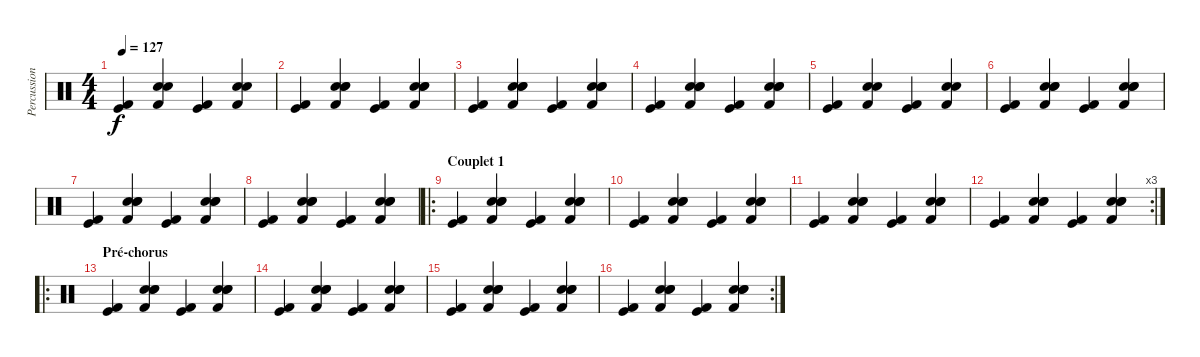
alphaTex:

\track ("Percussions" "Percussion") {instrument percussion}
\staff {score}
\articulation defaults
\ts (4 4)
\tempo 127
\clef neutral
\ks c
("Kick (hit) 2" "Kick (hit)").4{dy f} ("Kick (hit) 2" "Electric Snare (hit)" "Snare (hit) 2").4 ("Kick (hit) 2" "Kick (hit)").4 ("Kick (hit) 2" "Electric Snare (hit)" "Snare (hit) 2").4 |
("Kick (hit) 2" "Kick (hit)").4 ("Electric Snare (hit)" "Kick (hit) 2" "Electric Snare (hit)" "Snare (hit) 2").4 ("Kick (hit) 2" "Kick (hit)").4 ("Electric Snare (hit)" "Kick (hit) 2" "Electric Snare (hit)" "Snare (hit) 2").4 |
("Kick (hit) 2" "Kick (hit)").4 ("Electric Snare (hit)" "Kick (hit) 2" "Electric Snare (hit)" "Snare (hit) 2").4 ("Kick (hit) 2" "Kick (hit)").4 ("Electric Snare (hit)" "Kick (hit) 2" "Electric Snare (hit)" "Snare (hit) 2").4 |
("Kick (hit) 2" "Kick (hit)").4 ("Electric Snare (hit)" "Kick (hit) 2" "Electric Snare (hit)" "Snare (hit) 2").4 ("Kick (hit) 2" "Kick (hit)").4 ("Electric Snare (hit)" "Kick (hit) 2" "Electric Snare (hit)" "Snare (hit) 2").4 |
("Kick (hit) 2" "Kick (hit)").4 ("Kick (hit) 2" "Electric Snare (hit)" "Snare (hit) 2").4 ("Kick (hit) 2" "Kick (hit)").4 ("Kick (hit) 2" "Electric Snare (hit)" "Snare (hit) 2").4 |
("Kick (hit) 2" "Kick (hit)").4 ("Electric Snare (hit)" "Kick (hit) 2" "Electric Snare (hit)" "Snare (hit) 2").4 ("Kick (hit) 2" "Kick (hit)").4 ("Electric Snare (hit)" "Kick (hit) 2" "Electric Snare (hit)" "Snare (hit) 2").4 |
("Kick (hit) 2" "Kick (hit)").4 ("Electric Snare (hit)" "Kick (hit) 2" "Electric Snare (hit)" "Snare (hit) 2").4 ("Kick (hit) 2" "Kick (hit)").4 ("Electric Snare (hit)" "Kick (hit) 2" "Electric Snare (hit)" "Snare (hit) 2").4 |
("Kick (hit) 2" "Kick (hit)").4 ("Electric Snare (hit)" "Kick (hit) 2" "Electric Snare (hit)" "Snare (hit) 2").4 ("Kick (hit) 2" "Kick (hit)").4 ("Electric Snare (hit)" "Kick (hit) 2" "Electric Snare (hit)" "Snare (hit) 2").4 |
\ro
\section ("" "Couplet 1")
("Kick (hit) 2" "Kick (hit)").4 ("Electric Snare (hit)" "Kick (hit) 2" "Electric Snare (hit)" "Snare (hit) 2").4 ("Kick (hit) 2" "Kick (hit)").4 ("Electric Snare (hit)" "Kick (hit) 2" "Electric Snare (hit)" "Snare (hit) 2").4 |
("Kick (hit) 2" "Kick (hit)").4 ("Electric Snare (hit)" "Kick (hit) 2" "Electric Snare (hit)" "Snare (hit) 2").4 ("Kick (hit) 2" "Kick (hit)").4 ("Electric Snare (hit)" "Kick (hit) 2" "Electric Snare (hit)" "Snare (hit) 2").4 |
("Kick (hit) 2" "Kick (hit)").4 ("Electric Snare (hit)" "Kick (hit) 2" "Electric Snare (hit)" "Snare (hit) 2").4 ("Kick (hit) 2" "Kick (hit)").4 ("Electric Snare (hit)" "Kick (hit) 2" "Electric Snare (hit)" "Snare (hit) 2").4 |
\rc 3
("Kick (hit) 2" "Kick (hit)").4 ("Electric Snare (hit)" "Kick (hit) 2" "Electric Snare (hit)" "Snare (hit) 2").4 ("Kick (hit) 2" "Kick (hit)").4 ("Electric Snare (hit)" "Kick (hit) 2" "Electric Snare (hit)" "Snare (hit) 2").4 |
\ro
\section ("" "Pré-chorus")
("Kick (hit) 2" "Kick (hit)").4 ("Electric Snare (hit)" "Kick (hit) 2" "Electric Snare (hit)" "Snare (hit) 2").4 ("Kick (hit) 2" "Kick (hit)").4 ("Electric Snare (hit)" "Kick (hit) 2" "Electric Snare (hit)" "Snare (hit) 2").4 |
("Kick (hit) 2" "Kick (hit)").4 ("Electric Snare (hit)" "Kick (hit) 2" "Electric Snare (hit)" "Snare (hit) 2").4 ("Kick (hit) 2" "Kick (hit)").4 ("Electric Snare (hit)" "Kick (hit) 2" "Electric Snare (hit)" "Snare (hit) 2").4 |
("Kick (hit) 2" "Kick (hit)").4 ("Electric Snare (hit)" "Kick (hit) 2" "Electric Snare (hit)" "Snare (hit) 2").4 ("Kick (hit) 2" "Kick (hit)").4 ("Electric Snare (hit)" "Kick (hit) 2" "Electric Snare (hit)" "Snare (hit) 2").4 |
\rc 2
("Kick (hit) 2" "Kick (hit)").4 ("Electric Snare (hit)" "Kick (hit) 2" "Electric Snare (hit)" "Snare (hit) 2").4 ("Kick (hit) 2" "Kick (hit)").4 ("Electric Snare (hit)" "Kick (hit) 2" "Electric Snare (hit)" "Snare (hit) 2").4
